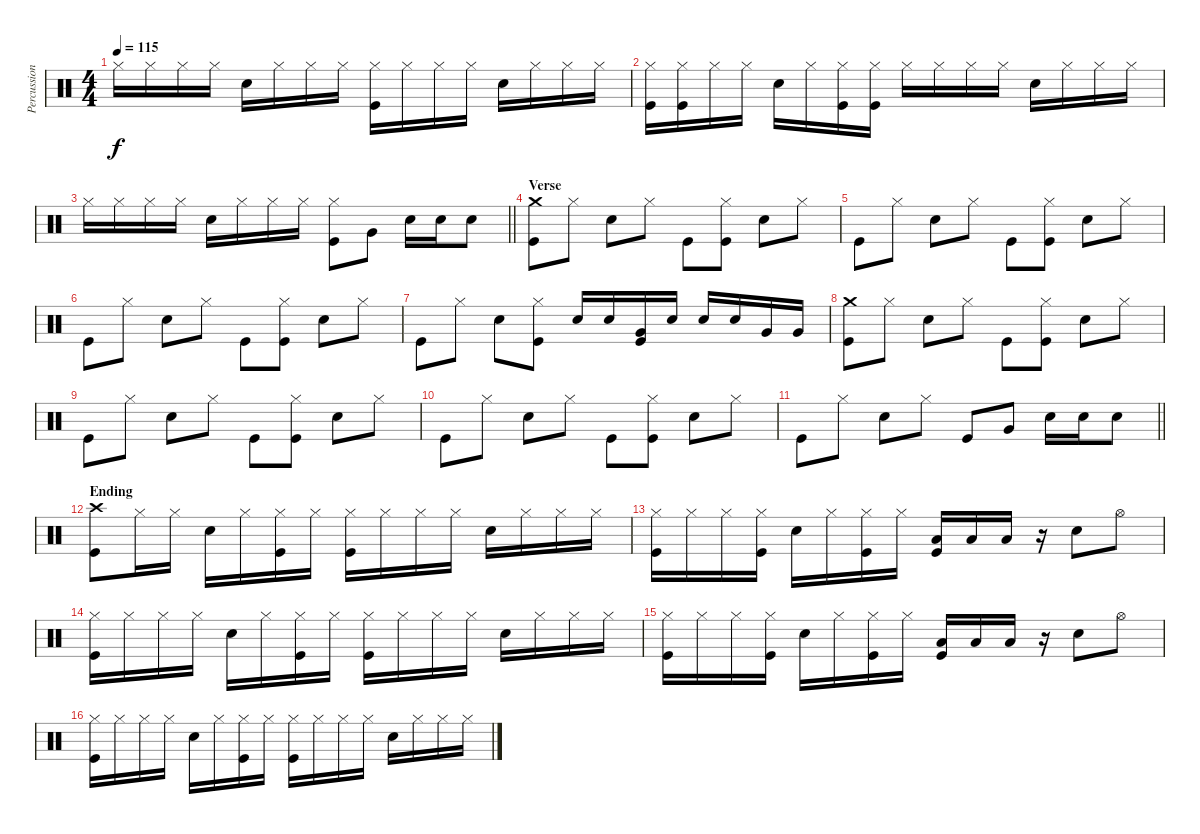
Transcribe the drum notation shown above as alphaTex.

\track ("Percussion" "Percussion") {instrument percussion}
\staff {score}
\articulation defaults
\ts (4 4)
\tempo 115
\clef neutral
\ks c "Hi-Hat (closed)".16{dy f} "Hi-Hat (closed)".16 "Hi-Hat (closed)".16 "Hi-Hat (closed)".16 "Snare (hit) 2".16 "Hi-Hat (closed)".16 "Hi-Hat (closed)".16 "Hi-Hat (closed)".16
("Kick (hit)" "Hi-Hat (closed)").16 "Hi-Hat (closed)".16 "Hi-Hat (closed)".16 "Hi-Hat (closed)".16 "Snare (hit) 2".16 "Hi-Hat (closed)".16 "Hi-Hat (closed)".16 "Hi-Hat (closed)".16 |
("Kick (hit)" "Hi-Hat (closed)").16 ("Kick (hit)" "Hi-Hat (closed)").16 "Hi-Hat (closed)".16 "Hi-Hat (closed)".16 "Snare (hit) 2".16 "Hi-Hat (closed)".16 ("Kick (hit)" "Hi-Hat (closed)").16 ("Kick (hit)" "Hi-Hat (closed)").16 "Hi-Hat (closed)".16 "Hi-Hat (closed)".16 "Hi-Hat (closed)".16 "Hi-Hat (closed)".16 "Snare (hit) 2".16 "Hi-Hat (closed)".16 "Hi-Hat (closed)".16 "Hi-Hat (closed)".16 |
\barLineRight lightlight "Hi-Hat (closed)".16 "Hi-Hat (closed)".16 "Hi-Hat (closed)".16 "Hi-Hat (closed)".16 "Snare (hit) 2".16 "Hi-Hat (closed)".16 "Hi-Hat (closed)".16 "Hi-Hat (closed)".16
("Kick (hit)" "Hi-Hat (closed)").8 "Very Low Tom (hit)".8 "Snare (hit) 2".16 "Snare (hit) 2".16 "Snare (hit) 2".8 |
\section ("" "Verse")
("Crash medium (hit)" "Kick (hit)").8 "Hi-Hat (closed)".8 "Snare (hit) 2".8 "Hi-Hat (closed)".8 "Kick (hit)".8 ("Kick (hit)" "Hi-Hat (closed)").8 "Snare (hit) 2".8 "Hi-Hat (closed)".8 |
"Kick (hit)".8 "Hi-Hat (closed)".8 "Snare (hit) 2".8 "Hi-Hat (closed)".8 "Kick (hit)".8 ("Kick (hit)" "Hi-Hat (closed)").8 "Snare (hit) 2".8 "Hi-Hat (closed)".8 |
"Kick (hit)".8 "Hi-Hat (closed)".8 "Snare (hit) 2".8 "Hi-Hat (closed)".8 "Kick (hit)".8 ("Kick (hit)" "Hi-Hat (closed)").8 "Snare (hit) 2".8 "Hi-Hat (closed)".8 |
"Kick (hit)".8 "Hi-Hat (closed)".8 "Snare (hit) 2".8 ("Kick (hit)" "Hi-Hat (closed)").8 "Snare (hit) 2".16 "Snare (hit) 2".16 ("Kick (hit)" "Very Low Tom (hit)").16 "Snare (hit) 2".16 "Snare (hit) 2".16 "Snare (hit) 2".16 "Very Low Tom (hit)".16 "Very Low Tom (hit)".16 |
("Crash medium (hit)" "Kick (hit)").8 "Hi-Hat (closed)".8 "Snare (hit) 2".8 "Hi-Hat (closed)".8 "Kick (hit)".8 ("Kick (hit)" "Hi-Hat (closed)").8 "Snare (hit) 2".8 "Hi-Hat (closed)".8 |
"Kick (hit)".8 "Hi-Hat (closed)".8 "Snare (hit) 2".8 "Hi-Hat (closed)".8 "Kick (hit)".8 ("Kick (hit)" "Hi-Hat (closed)").8 "Snare (hit) 2".8 "Hi-Hat (closed)".8 |
"Kick (hit)".8 "Hi-Hat (closed)".8 "Snare (hit) 2".8 "Hi-Hat (closed)".8 "Kick (hit)".8 ("Kick (hit)" "Hi-Hat (closed)").8 "Snare (hit) 2".8 "Hi-Hat (closed)".8 |
\barLineRight lightlight "Kick (hit)".8 "Hi-Hat (closed)".8 "Snare (hit) 2".8 "Hi-Hat (closed)".8 "Kick (hit)".8 "Very Low Tom (hit)".8 "Snare (hit) 2".16 "Snare (hit) 2".16 "Snare (hit) 2".8
|
\section ("" "Ending")
("Kick (hit)" "Crash high (hit)").8 "Hi-Hat (closed)".16 "Hi-Hat (closed)".16 "Snare (hit) 2".16 "Hi-Hat (closed)".16 ("Kick (hit)" "Hi-Hat (closed)").16 "Hi-Hat (closed)".16 ("Kick (hit)" "Hi-Hat (closed)").16 "Hi-Hat (closed)".16 "Hi-Hat (closed)".16 "Hi-Hat (closed)".16 "Snare (hit) 2".16 "Hi-Hat (closed)".16 "Hi-Hat (closed)".16 "Hi-Hat (closed)".16 |
("Kick (hit)" "Hi-Hat (closed)").16 "Hi-Hat (closed)".16 "Hi-Hat (closed)".16 ("Kick (hit)" "Hi-Hat (closed)").16 "Snare (hit) 2".16 "Hi-Hat (closed)".16 ("Kick (hit)" "Hi-Hat (closed)").16 "Hi-Hat (closed)".16 ("Low Floor Tom (hit)" "Kick (hit)").16 "Low Floor Tom (hit)".16 "Low Floor Tom (hit)".16 r.16 "Snare (hit) 2".8 "Hi-Hat (open)".8 |
("Kick (hit)" "Hi-Hat (closed)").16 "Hi-Hat (closed)".16 "Hi-Hat (closed)".16 "Hi-Hat (closed)".16 "Snare (hit) 2".16 "Hi-Hat (closed)".16 ("Kick (hit)" "Hi-Hat (closed)").16 "Hi-Hat (closed)".16 ("Kick (hit)" "Hi-Hat (closed)").16 "Hi-Hat (closed)".16 "Hi-Hat (closed)".16 "Hi-Hat (closed)".16 "Snare (hit) 2".16 "Hi-Hat (closed)".16 "Hi-Hat (closed)".16 "Hi-Hat (closed)".16 |
("Kick (hit)" "Hi-Hat (closed)").16 "Hi-Hat (closed)".16 "Hi-Hat (closed)".16 ("Kick (hit)" "Hi-Hat (closed)").16 "Snare (hit) 2".16 "Hi-Hat (closed)".16 ("Kick (hit)" "Hi-Hat (closed)").16 "Hi-Hat (closed)".16 ("Low Floor Tom (hit)" "Kick (hit)").16 "Low Floor Tom (hit)".16 "Low Floor Tom (hit)".16 r.16 "Snare (hit) 2".8 "Hi-Hat (open)".8 |
("Kick (hit)" "Hi-Hat (closed)").16 "Hi-Hat (closed)".16 "Hi-Hat (closed)".16 "Hi-Hat (closed)".16 "Snare (hit) 2".16 "Hi-Hat (closed)".16 ("Kick (hit)" "Hi-Hat (closed)").16 "Hi-Hat (closed)".16 ("Kick (hit)" "Hi-Hat (closed)").16 "Hi-Hat (closed)".16 "Hi-Hat (closed)".16 "Hi-Hat (closed)".16 "Snare (hit) 2".16 "Hi-Hat (closed)".16 "Hi-Hat (closed)".16 "Hi-Hat (closed)".16
